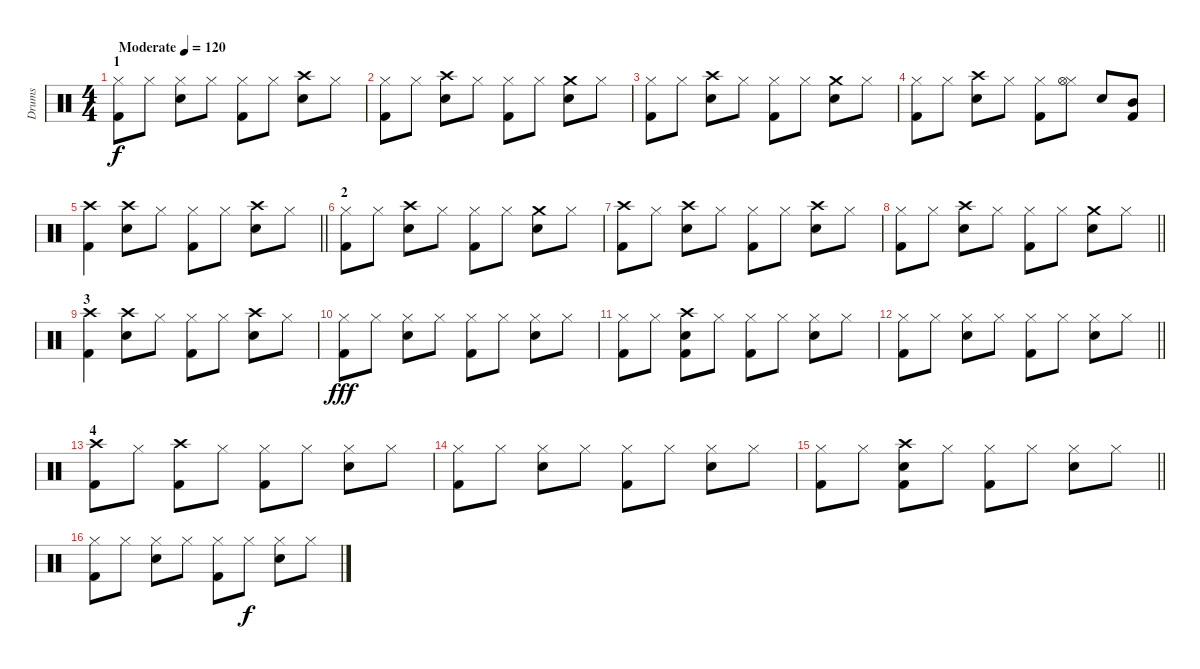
\track ("Drums" "Drums") {instrument percussion}
\staff {score}
\articulation defaults
\ts (4 4)
\section ("" "1")
\tempo (120 "Moderate")
\clef neutral
\ks c
("Hi-Hat (closed)" "Kick (hit) 2").8{dy f} "Hi-Hat (closed)".8 ("Hi-Hat (closed)" "Electric Snare (hit)").8 "Hi-Hat (closed)".8 ("Hi-Hat (closed)" "Kick (hit) 2").8 "Hi-Hat (closed)".8 ("Crash high (hit)" "Electric Snare (hit)").8 "Hi-Hat (closed)".8 |
("Hi-Hat (closed)" "Kick (hit) 2").8 "Hi-Hat (closed)".8 ("Crash high (hit)" "Electric Snare (hit)").8 "Hi-Hat (closed)".8 ("Hi-Hat (closed)" "Kick (hit) 2").8 "Hi-Hat (closed)".8 ("Crash medium (hit)" "Electric Snare (hit)").8 "Hi-Hat (closed)".8 |
("Hi-Hat (closed)" "Kick (hit) 2").8 "Hi-Hat (closed)".8 ("Crash high (hit)" "Electric Snare (hit)").8 "Hi-Hat (closed)".8 ("Hi-Hat (closed)" "Kick (hit) 2").8 "Hi-Hat (closed)".8 ("Crash medium (hit)" "Electric Snare (hit)").8 "Hi-Hat (closed)".8 |
("Hi-Hat (closed)" "Kick (hit) 2").8 "Hi-Hat (closed)".8 ("Crash high (hit)" "Electric Snare (hit)").8 "Hi-Hat (closed)".8 ("Hi-Hat (closed)" "Kick (hit) 2").8 ("Hi-Hat (closed)" "Hi-Hat (open)").8 "Electric Snare (hit)".8 ("Mid Tom (hit)" "Kick (hit) 2").8 |
\barLineRight lightlight
("Crash high (hit)" "Kick (hit) 2").4 ("Crash high (hit)" "Electric Snare (hit)").8 "Hi-Hat (closed)".8 ("Hi-Hat (closed)" "Kick (hit) 2").8 "Hi-Hat (closed)".8 ("Crash high (hit)" "Electric Snare (hit)").8 "Hi-Hat (closed)".8 |
\section ("" "2")
("Hi-Hat (closed)" "Kick (hit) 2").8 "Hi-Hat (closed)".8 ("Crash high (hit)" "Electric Snare (hit)").8 "Hi-Hat (closed)".8 ("Hi-Hat (closed)" "Kick (hit) 2").8 "Hi-Hat (closed)".8 ("Crash medium (hit)" "Electric Snare (hit)").8 "Hi-Hat (closed)".8 |
("Crash high (hit)" "Kick (hit) 2").8 "Hi-Hat (closed)".8 ("Crash high (hit)" "Electric Snare (hit)").8 "Hi-Hat (closed)".8 ("Hi-Hat (closed)" "Kick (hit) 2").8 "Hi-Hat (closed)".8 ("Crash high (hit)" "Electric Snare (hit)").8 "Hi-Hat (closed)".8 |
\barLineRight lightlight
("Hi-Hat (closed)" "Kick (hit) 2").8 "Hi-Hat (closed)".8 ("Crash high (hit)" "Electric Snare (hit)").8 "Hi-Hat (closed)".8 ("Hi-Hat (closed)" "Kick (hit) 2").8 "Hi-Hat (closed)".8 ("Crash medium (hit)" "Electric Snare (hit)").8 "Hi-Hat (closed)".8 |
\section ("" "3")
("Crash high (hit)" "Kick (hit) 2").4 ("Crash high (hit)" "Electric Snare (hit)").8 "Hi-Hat (closed)".8 ("Hi-Hat (closed)" "Kick (hit) 2").8 "Hi-Hat (closed)".8 ("Crash high (hit)" "Electric Snare (hit)").8 "Hi-Hat (closed)".8 |
("Hi-Hat (closed)" "Kick (hit) 2").8{dy fff} "Hi-Hat (closed)".8 ("Hi-Hat (closed)" "Electric Snare (hit)").8 "Hi-Hat (closed)".8 ("Hi-Hat (closed)" "Kick (hit) 2").8 "Hi-Hat (closed)".8 ("Hi-Hat (closed)" "Electric Snare (hit)").8 "Hi-Hat (closed)".8 |
("Hi-Hat (closed)" "Kick (hit) 2").8 "Hi-Hat (closed)".8 ("Crash high (hit)" "Electric Snare (hit)" "Kick (hit) 2").8 "Hi-Hat (closed)".8 ("Hi-Hat (closed)" "Kick (hit) 2").8 "Hi-Hat (closed)".8 ("Hi-Hat (closed)" "Electric Snare (hit)").8 "Hi-Hat (closed)".8 |
\barLineRight lightlight
("Hi-Hat (closed)" "Kick (hit) 2").8 "Hi-Hat (closed)".8 ("Hi-Hat (closed)" "Electric Snare (hit)").8 "Hi-Hat (closed)".8 ("Hi-Hat (closed)" "Kick (hit) 2").8 "Hi-Hat (closed)".8 ("Hi-Hat (closed)" "Electric Snare (hit)").8 "Hi-Hat (closed)".8 |
\section ("" "4")
("Crash high (hit)" "Kick (hit) 2").8 "Hi-Hat (closed)".8 ("Crash high (hit)" "Kick (hit) 2").8 "Hi-Hat (closed)".8 ("Hi-Hat (closed)" "Kick (hit) 2").8 "Hi-Hat (closed)".8 ("Hi-Hat (closed)" "Electric Snare (hit)").8 "Hi-Hat (closed)".8 |
("Hi-Hat (closed)" "Kick (hit) 2").8 "Hi-Hat (closed)".8 ("Hi-Hat (closed)" "Electric Snare (hit)").8 "Hi-Hat (closed)".8 ("Hi-Hat (closed)" "Kick (hit) 2").8 "Hi-Hat (closed)".8 ("Hi-Hat (closed)" "Electric Snare (hit)").8 "Hi-Hat (closed)".8 |
\barLineRight lightlight
("Hi-Hat (closed)" "Kick (hit) 2").8 "Hi-Hat (closed)".8 ("Crash high (hit)" "Electric Snare (hit)" "Kick (hit) 2").8 "Hi-Hat (closed)".8 ("Hi-Hat (closed)" "Kick (hit) 2").8 "Hi-Hat (closed)".8 ("Hi-Hat (closed)" "Electric Snare (hit)").8 "Hi-Hat (closed)".8 |
("Hi-Hat (closed)" "Kick (hit) 2").8 "Hi-Hat (closed)".8 ("Hi-Hat (closed)" "Electric Snare (hit)").8 "Hi-Hat (closed)".8 ("Hi-Hat (closed)" "Kick (hit) 2").8 "Hi-Hat (closed)".8{dy f} ("Hi-Hat (closed)" "Electric Snare (hit)").8 "Hi-Hat (closed)".8
